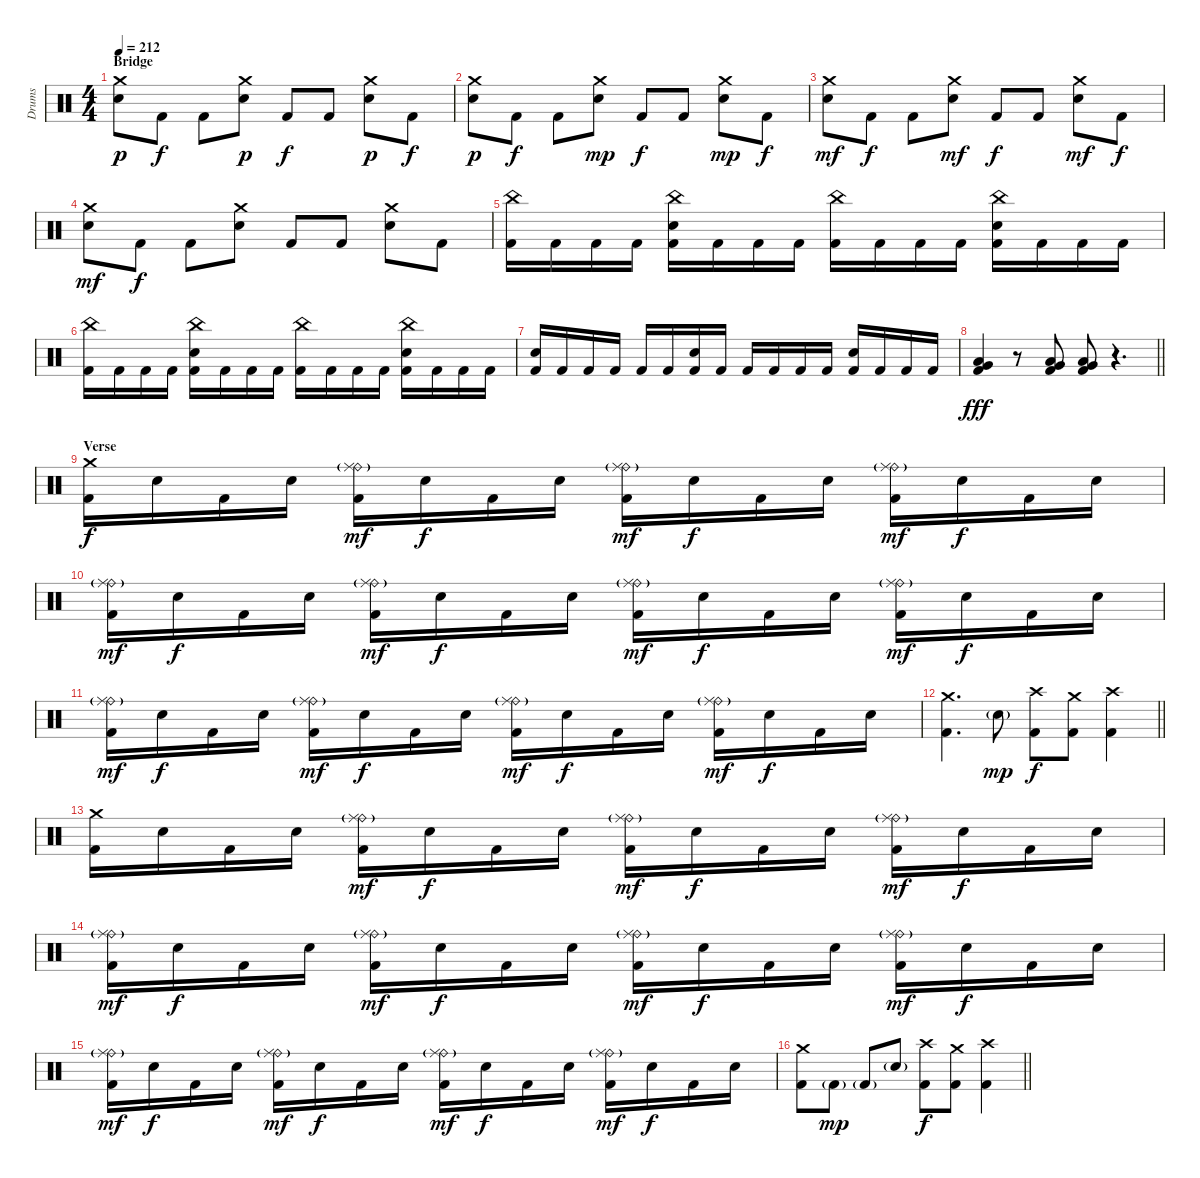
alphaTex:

\track ("Drums" "Drums") {instrument percussion}
\staff {score}
\articulation defaults
\ts (4 4)
\section ("" "Bridge")
\tempo 212
\clef neutral
\ks c
("Crash medium (hit)" "Electric Snare (hit)").8{dy p} "Kick (hit) 2".8{dy f} "Kick (hit) 2".8 ("Crash medium (hit)" "Electric Snare (hit)").8{dy p} "Kick (hit) 2".8{dy f} "Kick (hit) 2".8 ("Crash medium (hit)" "Electric Snare (hit)").8{dy p} "Kick (hit) 2".8{dy f} |
("Crash medium (hit)" "Electric Snare (hit)").8{dy p} "Kick (hit) 2".8{dy f} "Kick (hit) 2".8 ("Crash medium (hit)" "Electric Snare (hit)").8{dy mp} "Kick (hit) 2".8{dy f} "Kick (hit) 2".8 ("Crash medium (hit)" "Electric Snare (hit)").8{dy mp} "Kick (hit) 2".8{dy f} |
("Crash medium (hit)" "Electric Snare (hit)").8{dy mf} "Kick (hit) 2".8{dy f} "Kick (hit) 2".8 ("Crash medium (hit)" "Electric Snare (hit)").8{dy mf} "Kick (hit) 2".8{dy f} "Kick (hit) 2".8 ("Crash medium (hit)" "Electric Snare (hit)").8{dy mf} "Kick (hit) 2".8{dy f} |
("Crash medium (hit)" "Electric Snare (hit)").8{dy mf} "Kick (hit) 2".8{dy f} "Kick (hit) 2".8 ("Crash medium (hit)" "Electric Snare (hit)").8 "Kick (hit) 2".8 "Kick (hit) 2".8 ("Crash medium (hit)" "Electric Snare (hit)").8 "Kick (hit) 2".8 |
("China (hit)" "Kick (hit) 2").16 "Kick (hit) 2".16 "Kick (hit) 2".16 "Kick (hit) 2".16 ("China (hit)" "Electric Snare (hit)" "Kick (hit) 2").16 "Kick (hit) 2".16 "Kick (hit) 2".16 "Kick (hit) 2".16 ("China (hit)" "Kick (hit) 2").16 "Kick (hit) 2".16 "Kick (hit) 2".16 "Kick (hit) 2".16 ("China (hit)" "Electric Snare (hit)" "Kick (hit) 2").16 "Kick (hit) 2".16 "Kick (hit) 2".16 "Kick (hit) 2".16 |
("China (hit)" "Kick (hit) 2").16 "Kick (hit) 2".16 "Kick (hit) 2".16 "Kick (hit) 2".16 ("China (hit)" "Electric Snare (hit)" "Kick (hit) 2").16 "Kick (hit) 2".16 "Kick (hit) 2".16 "Kick (hit) 2".16 ("China (hit)" "Kick (hit) 2").16 "Kick (hit) 2".16 "Kick (hit) 2".16 "Kick (hit) 2".16 ("China (hit)" "Electric Snare (hit)" "Kick (hit) 2").16 "Kick (hit) 2".16 "Kick (hit) 2".16 "Kick (hit) 2".16 |
("Electric Snare (hit)" "Kick (hit) 2").16 "Kick (hit) 2".16 "Kick (hit) 2".16 "Kick (hit) 2".16 "Kick (hit) 2".16 "Kick (hit) 2".16 ("Electric Snare (hit)" "Kick (hit) 2").16 "Kick (hit) 2".16 "Kick (hit) 2".16 "Kick (hit) 2".16 "Kick (hit) 2".16 "Kick (hit) 2".16 ("Electric Snare (hit)" "Kick (hit) 2").16 "Kick (hit) 2".16 "Kick (hit) 2".16 "Kick (hit) 2".16 |
\barLineRight lightlight
("Low Tom (hit)" "Very Low Tom (hit)" "Kick (hit) 2").4{dy fff} r.8 ("Low Floor Tom (hit)" "Very Low Tom (hit)" "Kick (hit) 2").8 ("Low Tom (hit)" "Very Low Tom (hit)" "Kick (hit) 2").8 r.4{d} |
\section ("" "Verse")
("Crash medium (hit)" "Kick (hit) 2").16{dy f} "Electric Snare (hit)".16 "Kick (hit) 2".16 "Electric Snare (hit)".16 ("Ride (bell)"{g} "Ride (middle)" "Kick (hit) 2").16{dy mf} "Electric Snare (hit)".16{dy f} "Kick (hit) 2".16 "Electric Snare (hit)".16 ("Ride (bell)"{g} "Ride (middle)" "Kick (hit) 2").16{dy mf} "Electric Snare (hit)".16{dy f} "Kick (hit) 2".16 "Electric Snare (hit)".16 ("Ride (bell)"{g} "Ride (middle)" "Kick (hit) 2").16{dy mf} "Electric Snare (hit)".16{dy f} "Kick (hit) 2".16 "Electric Snare (hit)".16 |
("Ride (bell)"{g} "Ride (middle)" "Kick (hit) 2").16{dy mf} "Electric Snare (hit)".16{dy f} "Kick (hit) 2".16 "Electric Snare (hit)".16 ("Ride (bell)"{g} "Ride (middle)" "Kick (hit) 2").16{dy mf} "Electric Snare (hit)".16{dy f} "Kick (hit) 2".16 "Electric Snare (hit)".16 ("Ride (bell)"{g} "Ride (middle)" "Kick (hit) 2").16{dy mf} "Electric Snare (hit)".16{dy f} "Kick (hit) 2".16 "Electric Snare (hit)".16 ("Ride (bell)"{g} "Ride (middle)" "Kick (hit) 2").16{dy mf} "Electric Snare (hit)".16{dy f} "Kick (hit) 2".16 "Electric Snare (hit)".16 |
("Ride (bell)"{g} "Ride (middle)" "Kick (hit) 2").16{dy mf} "Electric Snare (hit)".16{dy f} "Kick (hit) 2".16 "Electric Snare (hit)".16 ("Ride (bell)"{g} "Ride (middle)" "Kick (hit) 2").16{dy mf} "Electric Snare (hit)".16{dy f} "Kick (hit) 2".16 "Electric Snare (hit)".16 ("Ride (bell)"{g} "Ride (middle)" "Kick (hit) 2").16{dy mf} "Electric Snare (hit)".16{dy f} "Kick (hit) 2".16 "Electric Snare (hit)".16 ("Ride (bell)"{g} "Ride (middle)" "Kick (hit) 2").16{dy mf} "Electric Snare (hit)".16{dy f} "Kick (hit) 2".16 "Electric Snare (hit)".16 |
\barLineRight lightlight
("Crash medium (hit)" "Kick (hit) 2").4{d} "Electric Snare (hit)"{g}.8{dy mp} ("Crash high (hit)" "Kick (hit) 2").8{dy f} ("Crash medium (hit)" "Kick (hit) 2").8 ("Crash high (hit)" "Kick (hit) 2").4 |
("Crash medium (hit)" "Kick (hit) 2").16 "Electric Snare (hit)".16 "Kick (hit) 2".16 "Electric Snare (hit)".16 ("Ride (bell)"{g} "Ride (middle)" "Kick (hit) 2").16{dy mf} "Electric Snare (hit)".16{dy f} "Kick (hit) 2".16 "Electric Snare (hit)".16 ("Ride (bell)"{g} "Ride (middle)" "Kick (hit) 2").16{dy mf} "Electric Snare (hit)".16{dy f} "Kick (hit) 2".16 "Electric Snare (hit)".16 ("Ride (bell)"{g} "Ride (middle)" "Kick (hit) 2").16{dy mf} "Electric Snare (hit)".16{dy f} "Kick (hit) 2".16 "Electric Snare (hit)".16 |
("Ride (bell)"{g} "Ride (middle)" "Kick (hit) 2").16{dy mf} "Electric Snare (hit)".16{dy f} "Kick (hit) 2".16 "Electric Snare (hit)".16 ("Ride (bell)"{g} "Ride (middle)" "Kick (hit) 2").16{dy mf} "Electric Snare (hit)".16{dy f} "Kick (hit) 2".16 "Electric Snare (hit)".16 ("Ride (bell)"{g} "Ride (middle)" "Kick (hit) 2").16{dy mf} "Electric Snare (hit)".16{dy f} "Kick (hit) 2".16 "Electric Snare (hit)".16 ("Ride (bell)"{g} "Ride (middle)" "Kick (hit) 2").16{dy mf} "Electric Snare (hit)".16{dy f} "Kick (hit) 2".16 "Electric Snare (hit)".16 |
("Ride (bell)"{g} "Ride (middle)" "Kick (hit) 2").16{dy mf} "Electric Snare (hit)".16{dy f} "Kick (hit) 2".16 "Electric Snare (hit)".16 ("Ride (bell)"{g} "Ride (middle)" "Kick (hit) 2").16{dy mf} "Electric Snare (hit)".16{dy f} "Kick (hit) 2".16 "Electric Snare (hit)".16 ("Ride (bell)"{g} "Ride (middle)" "Kick (hit) 2").16{dy mf} "Electric Snare (hit)".16{dy f} "Kick (hit) 2".16 "Electric Snare (hit)".16 ("Ride (bell)"{g} "Ride (middle)" "Kick (hit) 2").16{dy mf} "Electric Snare (hit)".16{dy f} "Kick (hit) 2".16 "Electric Snare (hit)".16 |
\barLineRight lightlight
("Crash medium (hit)" "Kick (hit) 2").8 "Kick (hit) 2"{g}.8{dy mp} "Kick (hit) 2"{g}.8 "Electric Snare (hit)"{g}.8 ("Crash high (hit)" "Kick (hit) 2").8{dy f} ("Crash medium (hit)" "Kick (hit) 2").8 ("Crash high (hit)" "Kick (hit) 2").4
